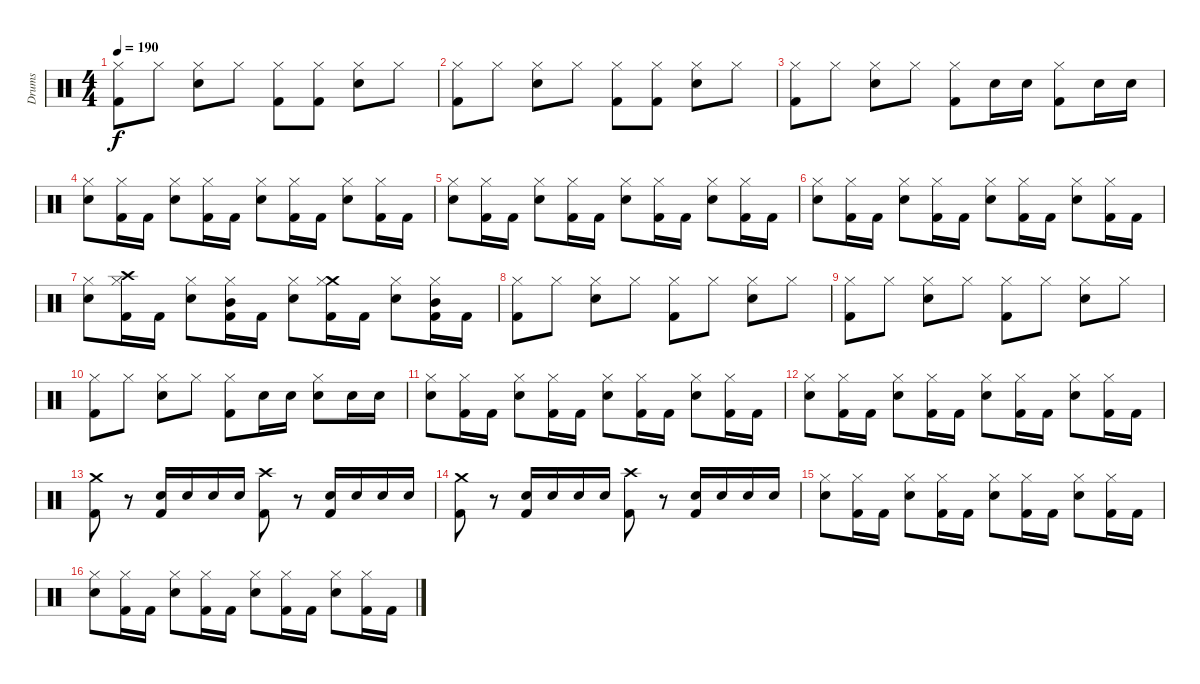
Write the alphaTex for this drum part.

\track ("Drums" "Drums") {instrument percussion}
\staff {score}
\articulation defaults
\ts (4 4)
\tempo 190
\clef neutral
\ks c
("Kick (hit) 2" "Hi-Hat (closed)").8{dy f} "Hi-Hat (closed)".8 ("Snare (hit) 2" "Hi-Hat (closed)").8 "Hi-Hat (closed)".8 ("Kick (hit) 2" "Hi-Hat (closed)").8 ("Kick (hit) 2" "Hi-Hat (closed)").8 ("Snare (hit) 2" "Hi-Hat (closed)").8 "Hi-Hat (closed)".8 |
("Kick (hit) 2" "Hi-Hat (closed)").8 "Hi-Hat (closed)".8 ("Snare (hit) 2" "Hi-Hat (closed)").8 "Hi-Hat (closed)".8 ("Kick (hit) 2" "Hi-Hat (closed)").8 ("Kick (hit) 2" "Hi-Hat (closed)").8 ("Snare (hit) 2" "Hi-Hat (closed)").8 "Hi-Hat (closed)".8 |
("Kick (hit) 2" "Hi-Hat (closed)").8 "Hi-Hat (closed)".8 ("Snare (hit) 2" "Hi-Hat (closed)").8 "Hi-Hat (closed)".8 ("Kick (hit) 2" "Hi-Hat (closed)").8 "Snare (hit) 2".16 "Snare (hit) 2".16 ("Kick (hit) 2" "Hi-Hat (closed)").8 "Snare (hit) 2".16 "Snare (hit) 2".16 |
("Snare (hit) 2" "Hi-Hat (closed)").8 ("Kick (hit) 2" "Hi-Hat (closed)").16 "Kick (hit) 2".16 ("Snare (hit) 2" "Hi-Hat (closed)").8 ("Kick (hit) 2" "Hi-Hat (closed)").16 "Kick (hit) 2".16 ("Snare (hit) 2" "Hi-Hat (closed)").8 ("Kick (hit) 2" "Hi-Hat (closed)").16 "Kick (hit) 2".16 ("Snare (hit) 2" "Hi-Hat (closed)").8 ("Kick (hit) 2" "Hi-Hat (closed)").16 "Kick (hit) 2".16 |
("Snare (hit) 2" "Hi-Hat (closed)").8 ("Kick (hit) 2" "Hi-Hat (closed)").16 "Kick (hit) 2".16 ("Snare (hit) 2" "Hi-Hat (closed)").8 ("Kick (hit) 2" "Hi-Hat (closed)").16 "Kick (hit) 2".16 ("Snare (hit) 2" "Hi-Hat (closed)").8 ("Kick (hit) 2" "Hi-Hat (closed)").16 "Kick (hit) 2".16 ("Snare (hit) 2" "Hi-Hat (closed)").8 ("Kick (hit) 2" "Hi-Hat (closed)").16 "Kick (hit) 2".16 |
("Snare (hit) 2" "Hi-Hat (closed)").8 ("Kick (hit) 2" "Hi-Hat (closed)").16 "Kick (hit) 2".16 ("Snare (hit) 2" "Hi-Hat (closed)").8 ("Kick (hit) 2" "Hi-Hat (closed)").16 "Kick (hit) 2".16 ("Snare (hit) 2" "Hi-Hat (closed)").8 ("Kick (hit) 2" "Hi-Hat (closed)").16 "Kick (hit) 2".16 ("Snare (hit) 2" "Hi-Hat (closed)").8 ("Kick (hit) 2" "Hi-Hat (closed)").16 "Kick (hit) 2".16 |
("Snare (hit) 2" "Hi-Hat (closed)").8 ("Kick (hit) 2" "Crash high (hit)" "Hi-Hat (closed)").16 "Kick (hit) 2".16 ("Snare (hit) 2" "Hi-Hat (closed)").8 ("Kick (hit) 2" "Mid Tom (hit)" "Hi-Hat (closed)").16 "Kick (hit) 2".16 ("Snare (hit) 2" "Hi-Hat (closed)").8 ("Kick (hit) 2" "Crash medium (hit)" "Hi-Hat (closed)").16 "Kick (hit) 2".16 ("Snare (hit) 2" "Hi-Hat (closed)").8 ("Kick (hit) 2" "Mid Tom (hit)" "Hi-Hat (closed)").16 "Kick (hit) 2".16 |
("Kick (hit) 2" "Hi-Hat (closed)").8 "Hi-Hat (closed)".8 ("Snare (hit) 2" "Hi-Hat (closed)").8 "Hi-Hat (closed)".8 ("Kick (hit) 2" "Hi-Hat (closed)").8 "Hi-Hat (closed)".8 ("Snare (hit) 2" "Hi-Hat (closed)").8 "Hi-Hat (closed)".8 |
("Kick (hit) 2" "Hi-Hat (closed)").8 "Hi-Hat (closed)".8 ("Snare (hit) 2" "Hi-Hat (closed)").8 "Hi-Hat (closed)".8 ("Kick (hit) 2" "Hi-Hat (closed)").8 "Hi-Hat (closed)".8 ("Snare (hit) 2" "Hi-Hat (closed)").8 "Hi-Hat (closed)".8 |
("Kick (hit) 2" "Hi-Hat (closed)").8 "Hi-Hat (closed)".8 ("Snare (hit) 2" "Hi-Hat (closed)").8 "Hi-Hat (closed)".8 ("Kick (hit) 2" "Hi-Hat (closed)").8 "Snare (hit) 2".16 "Snare (hit) 2".16 ("Snare (hit) 2" "Hi-Hat (closed)").8 "Snare (hit) 2".16 "Snare (hit) 2".16 |
("Snare (hit) 2" "Hi-Hat (closed)").8 ("Kick (hit) 2" "Hi-Hat (closed)").16 "Kick (hit) 2".16 ("Snare (hit) 2" "Hi-Hat (closed)").8 ("Kick (hit) 2" "Hi-Hat (closed)").16 "Kick (hit) 2".16 ("Snare (hit) 2" "Hi-Hat (closed)").8 ("Kick (hit) 2" "Hi-Hat (closed)").16 "Kick (hit) 2".16 ("Snare (hit) 2" "Hi-Hat (closed)").8 ("Kick (hit) 2" "Hi-Hat (closed)").16 "Kick (hit) 2".16 |
("Snare (hit) 2" "Hi-Hat (closed)").8 ("Kick (hit) 2" "Hi-Hat (closed)").16 "Kick (hit) 2".16 ("Snare (hit) 2" "Hi-Hat (closed)").8 ("Kick (hit) 2" "Hi-Hat (closed)").16 "Kick (hit) 2".16 ("Snare (hit) 2" "Hi-Hat (closed)").8 ("Kick (hit) 2" "Hi-Hat (closed)").16 "Kick (hit) 2".16 ("Snare (hit) 2" "Hi-Hat (closed)").8 ("Kick (hit) 2" "Hi-Hat (closed)").16 "Kick (hit) 2".16 |
("Crash medium (hit)" "Kick (hit) 2").8 r.8 ("Snare (hit) 2" "Kick (hit) 2").16 "Snare (hit) 2".16 "Snare (hit) 2".16 "Snare (hit) 2".16 ("Crash high (hit)" "Kick (hit) 2").8 r.8 ("Snare (hit) 2" "Kick (hit) 2").16 "Snare (hit) 2".16 "Snare (hit) 2".16 "Snare (hit) 2".16 |
("Crash medium (hit)" "Kick (hit) 2").8 r.8 ("Snare (hit) 2" "Kick (hit) 2").16 "Snare (hit) 2".16 "Snare (hit) 2".16 "Snare (hit) 2".16 ("Crash high (hit)" "Kick (hit) 2").8 r.8 ("Snare (hit) 2" "Kick (hit) 2").16 "Snare (hit) 2".16 "Snare (hit) 2".16 "Snare (hit) 2".16 |
("Snare (hit) 2" "Hi-Hat (closed)").8 ("Kick (hit) 2" "Hi-Hat (closed)").16 "Kick (hit) 2".16 ("Snare (hit) 2" "Hi-Hat (closed)").8 ("Kick (hit) 2" "Hi-Hat (closed)").16 "Kick (hit) 2".16 ("Snare (hit) 2" "Hi-Hat (closed)").8 ("Kick (hit) 2" "Hi-Hat (closed)").16 "Kick (hit) 2".16 ("Snare (hit) 2" "Hi-Hat (closed)").8 ("Kick (hit) 2" "Hi-Hat (closed)").16 "Kick (hit) 2".16 |
("Snare (hit) 2" "Hi-Hat (closed)").8 ("Kick (hit) 2" "Hi-Hat (closed)").16 "Kick (hit) 2".16 ("Snare (hit) 2" "Hi-Hat (closed)").8 ("Kick (hit) 2" "Hi-Hat (closed)").16 "Kick (hit) 2".16 ("Snare (hit) 2" "Hi-Hat (closed)").8 ("Kick (hit) 2" "Hi-Hat (closed)").16 "Kick (hit) 2".16 ("Snare (hit) 2" "Hi-Hat (closed)").8 ("Kick (hit) 2" "Hi-Hat (closed)").16 "Kick (hit) 2".16
